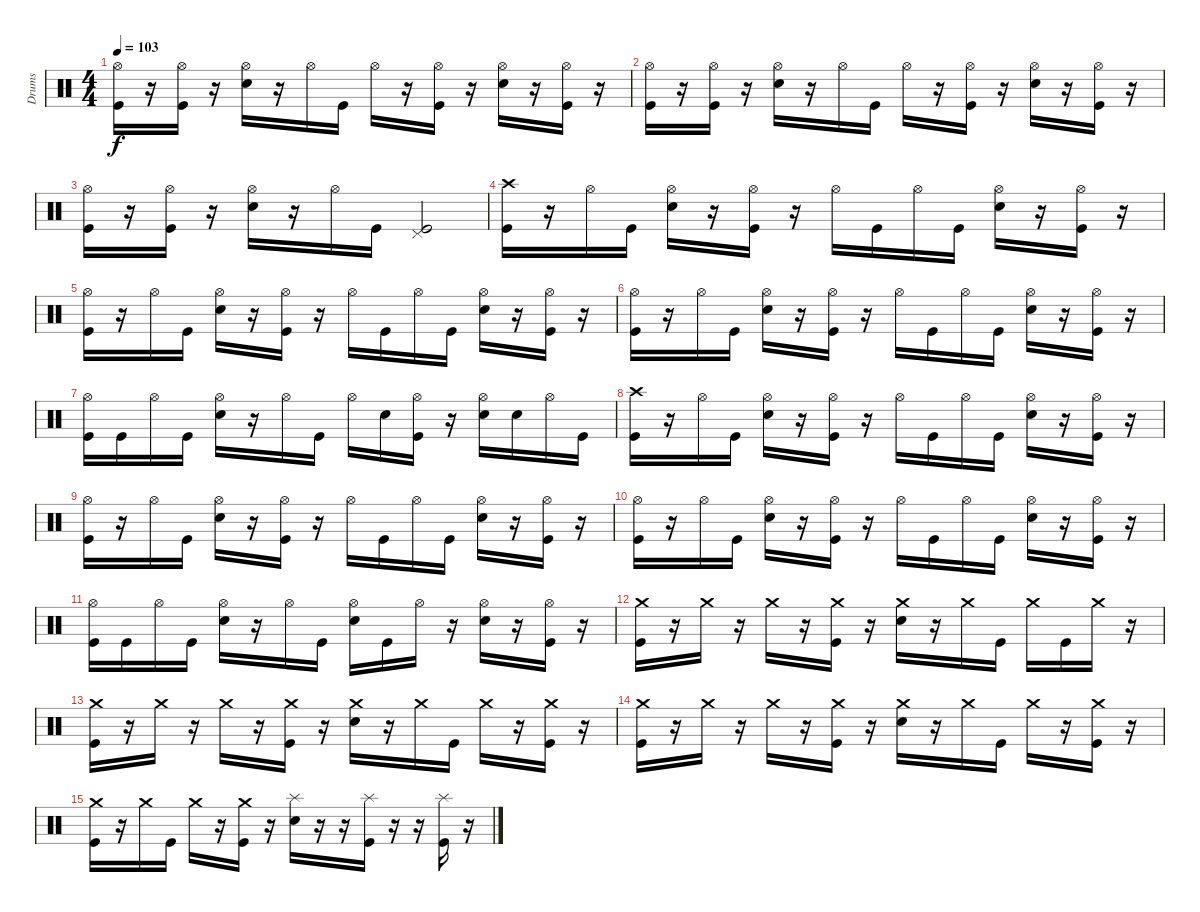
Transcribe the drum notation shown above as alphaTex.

\track ("Drums" "Drums") {instrument percussion}
\staff {score}
\articulation defaults
\ts (4 4)
\tempo 103
\clef neutral
\ks c
("Hi-Hat (open)" "Kick (hit)").16{dy f} r.16 ("Hi-Hat (open)" "Kick (hit)").16 r.16 ("Hi-Hat (open)" "Electric Snare (hit)").16 r.16 "Hi-Hat (open)".16 "Kick (hit)".16 "Hi-Hat (open)".16 r.16 ("Hi-Hat (open)" "Kick (hit)").16 r.16 ("Hi-Hat (open)" "Electric Snare (hit)").16 r.16 ("Hi-Hat (open)" "Kick (hit)").16 r.16 |
("Hi-Hat (open)" "Kick (hit)").16 r.16 ("Hi-Hat (open)" "Kick (hit)").16 r.16 ("Hi-Hat (open)" "Electric Snare (hit)").16 r.16 "Hi-Hat (open)".16 "Kick (hit)".16 "Hi-Hat (open)".16 r.16 ("Hi-Hat (open)" "Kick (hit)").16 r.16 ("Hi-Hat (open)" "Electric Snare (hit)").16 r.16 ("Hi-Hat (open)" "Kick (hit)").16 r.16 |
("Hi-Hat (open)" "Kick (hit)").16 r.16 ("Hi-Hat (open)" "Kick (hit)").16 r.16 ("Hi-Hat (open)" "Electric Snare (hit)").16 r.16 "Hi-Hat (open)".16 "Kick (hit)".16 ("Pedal Hi-Hat (hit)" "Kick (hit)").2 |
("Crash high (hit)" "Kick (hit)").16 r.16 "Hi-Hat (open)".16 "Kick (hit)".16 ("Hi-Hat (open)" "Electric Snare (hit)").16 r.16 ("Hi-Hat (open)" "Kick (hit)").16 r.16 "Hi-Hat (open)".16 "Kick (hit)".16 "Hi-Hat (open)".16 "Kick (hit)".16 ("Hi-Hat (open)" "Electric Snare (hit)").16 r.16 ("Hi-Hat (open)" "Kick (hit)").16 r.16 |
("Hi-Hat (open)" "Kick (hit)").16 r.16 "Hi-Hat (open)".16 "Kick (hit)".16 ("Hi-Hat (open)" "Electric Snare (hit)").16 r.16 ("Hi-Hat (open)" "Kick (hit)").16 r.16 "Hi-Hat (open)".16 "Kick (hit)".16 "Hi-Hat (open)".16 "Kick (hit)".16 ("Hi-Hat (open)" "Electric Snare (hit)").16 r.16 ("Hi-Hat (open)" "Kick (hit)").16 r.16 |
("Hi-Hat (open)" "Kick (hit)").16 r.16 "Hi-Hat (open)".16 "Kick (hit)".16 ("Hi-Hat (open)" "Electric Snare (hit)").16 r.16 ("Hi-Hat (open)" "Kick (hit)").16 r.16 "Hi-Hat (open)".16 "Kick (hit)".16 "Hi-Hat (open)".16 "Kick (hit)".16 ("Hi-Hat (open)" "Electric Snare (hit)").16 r.16 ("Hi-Hat (open)" "Kick (hit)").16 r.16 |
("Hi-Hat (open)" "Kick (hit)").16 "Kick (hit)".16 "Hi-Hat (open)".16 "Kick (hit)".16 ("Hi-Hat (open)" "Electric Snare (hit)").16 r.16 "Hi-Hat (open)".16 "Kick (hit)".16 "Hi-Hat (open)".16 "Electric Snare (hit)".16 ("Hi-Hat (open)" "Kick (hit)").16 r.16 ("Hi-Hat (open)" "Electric Snare (hit)").16 "Electric Snare (hit)".16 "Hi-Hat (open)".16 "Kick (hit)".16 |
("Crash high (hit)" "Kick (hit)").16 r.16 "Hi-Hat (open)".16 "Kick (hit)".16 ("Hi-Hat (open)" "Electric Snare (hit)").16 r.16 ("Hi-Hat (open)" "Kick (hit)").16 r.16 "Hi-Hat (open)".16 "Kick (hit)".16 "Hi-Hat (open)".16 "Kick (hit)".16 ("Hi-Hat (open)" "Electric Snare (hit)").16 r.16 ("Hi-Hat (open)" "Kick (hit)").16 r.16 |
("Hi-Hat (open)" "Kick (hit)").16 r.16 "Hi-Hat (open)".16 "Kick (hit)".16 ("Hi-Hat (open)" "Electric Snare (hit)").16 r.16 ("Hi-Hat (open)" "Kick (hit)").16 r.16 "Hi-Hat (open)".16 "Kick (hit)".16 "Hi-Hat (open)".16 "Kick (hit)".16 ("Hi-Hat (open)" "Electric Snare (hit)").16 r.16 ("Hi-Hat (open)" "Kick (hit)").16 r.16 |
("Hi-Hat (open)" "Kick (hit)").16 r.16 "Hi-Hat (open)".16 "Kick (hit)".16 ("Hi-Hat (open)" "Electric Snare (hit)").16 r.16 ("Hi-Hat (open)" "Kick (hit)").16 r.16 "Hi-Hat (open)".16 "Kick (hit)".16 "Hi-Hat (open)".16 "Kick (hit)".16 ("Hi-Hat (open)" "Electric Snare (hit)").16 r.16 ("Hi-Hat (open)" "Kick (hit)").16 r.16 |
("Hi-Hat (open)" "Kick (hit)").16 "Kick (hit)".16 "Hi-Hat (open)".16 "Kick (hit)".16 ("Hi-Hat (open)" "Electric Snare (hit)").16 r.16 "Hi-Hat (open)".16 "Kick (hit)".16 ("Hi-Hat (open)" "Electric Snare (hit)").16 "Kick (hit)".16 "Hi-Hat (open)".16 r.16 ("Hi-Hat (open)" "Electric Snare (hit)").16 r.16 ("Hi-Hat (open)" "Kick (hit)").16 r.16 |
("Crash medium (hit)" "Kick (hit)").16 r.16 "Crash medium (hit)".16 r.16 "Crash medium (hit)".16 r.16 ("Crash medium (hit)" "Kick (hit)").16 r.16 ("Crash medium (hit)" "Electric Snare (hit)").16 r.16 "Crash medium (hit)".16 "Kick (hit)".16 "Crash medium (hit)".16 "Kick (hit)".16 "Crash medium (hit)".16 r.16 |
("Crash medium (hit)" "Kick (hit)").16 r.16 "Crash medium (hit)".16 r.16 "Crash medium (hit)".16 r.16 ("Crash medium (hit)" "Kick (hit)").16 r.16 ("Crash medium (hit)" "Electric Snare (hit)").16 r.16 "Crash medium (hit)".16 "Kick (hit)".16 "Crash medium (hit)".16 r.16 ("Crash medium (hit)" "Kick (hit)").16 r.16 |
("Crash medium (hit)" "Kick (hit)").16 r.16 "Crash medium (hit)".16 r.16 "Crash medium (hit)".16 r.16 ("Crash medium (hit)" "Kick (hit)").16 r.16 ("Crash medium (hit)" "Electric Snare (hit)").16 r.16 "Crash medium (hit)".16 "Kick (hit)".16 "Crash medium (hit)".16 r.16 ("Crash medium (hit)" "Kick (hit)").16 r.16 |
("Crash medium (hit)" "Kick (hit)").16 r.16 "Crash medium (hit)".16 "Kick (hit)".16 "Crash medium (hit)".16 r.16 ("Crash medium (hit)" "Kick (hit)").16 r.16 ("Splash (hit)" "Electric Snare (hit)").16 r.16 r.16 ("Splash (hit)" "Kick (hit)").16 r.16 r.16 ("Splash (hit)" "Kick (hit)").16 r.16
